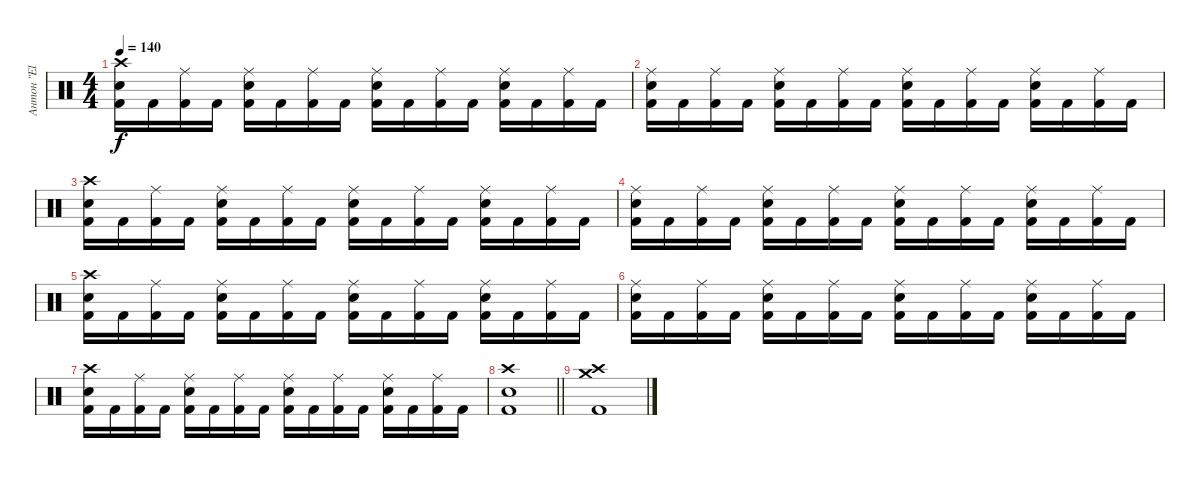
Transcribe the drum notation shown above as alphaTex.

\track ("Антон \"El Bastardo\" Смольянин" "Антон \"El ") {instrument percussion}
\staff {score}
\articulation defaults
\ts (4 4)
\tempo 140
\clef neutral
\ks c
("Crash high (hit)" "Electric Snare (hit)" "Kick (hit) 2").16{dy f} "Kick (hit) 2".16 ("Ride (middle)" "Kick (hit) 2").16 "Kick (hit) 2".16 ("Ride (middle)" "Electric Snare (hit)" "Kick (hit) 2").16 "Kick (hit) 2".16 ("Ride (middle)" "Kick (hit) 2").16 "Kick (hit) 2".16 ("Ride (middle)" "Electric Snare (hit)" "Kick (hit) 2").16 "Kick (hit) 2".16 ("Ride (middle)" "Kick (hit) 2").16 "Kick (hit) 2".16 ("Ride (middle)" "Electric Snare (hit)" "Kick (hit) 2").16 "Kick (hit) 2".16 ("Ride (middle)" "Kick (hit) 2").16 "Kick (hit) 2".16 |
("Ride (middle)" "Electric Snare (hit)" "Kick (hit) 2").16 "Kick (hit) 2".16 ("Ride (middle)" "Kick (hit) 2").16 "Kick (hit) 2".16 ("Ride (middle)" "Electric Snare (hit)" "Kick (hit) 2").16 "Kick (hit) 2".16 ("Ride (middle)" "Kick (hit) 2").16 "Kick (hit) 2".16 ("Ride (middle)" "Electric Snare (hit)" "Kick (hit) 2").16 "Kick (hit) 2".16 ("Ride (middle)" "Kick (hit) 2").16 "Kick (hit) 2".16 ("Ride (middle)" "Electric Snare (hit)" "Kick (hit) 2").16 "Kick (hit) 2".16 ("Ride (middle)" "Kick (hit) 2").16 "Kick (hit) 2".16 |
("Crash high (hit)" "Electric Snare (hit)" "Kick (hit) 2").16 "Kick (hit) 2".16 ("Ride (middle)" "Kick (hit) 2").16 "Kick (hit) 2".16 ("Ride (middle)" "Electric Snare (hit)" "Kick (hit) 2").16 "Kick (hit) 2".16 ("Ride (middle)" "Kick (hit) 2").16 "Kick (hit) 2".16 ("Ride (middle)" "Electric Snare (hit)" "Kick (hit) 2").16 "Kick (hit) 2".16 ("Ride (middle)" "Kick (hit) 2").16 "Kick (hit) 2".16 ("Ride (middle)" "Electric Snare (hit)" "Kick (hit) 2").16 "Kick (hit) 2".16 ("Ride (middle)" "Kick (hit) 2").16 "Kick (hit) 2".16 |
("Ride (middle)" "Electric Snare (hit)" "Kick (hit) 2").16 "Kick (hit) 2".16 ("Ride (middle)" "Kick (hit) 2").16 "Kick (hit) 2".16 ("Ride (middle)" "Electric Snare (hit)" "Kick (hit) 2").16 "Kick (hit) 2".16 ("Ride (middle)" "Kick (hit) 2").16 "Kick (hit) 2".16 ("Ride (middle)" "Electric Snare (hit)" "Kick (hit) 2").16 "Kick (hit) 2".16 ("Ride (middle)" "Kick (hit) 2").16 "Kick (hit) 2".16 ("Ride (middle)" "Electric Snare (hit)" "Kick (hit) 2").16 "Kick (hit) 2".16 ("Ride (middle)" "Kick (hit) 2").16 "Kick (hit) 2".16 |
("Crash high (hit)" "Electric Snare (hit)" "Kick (hit) 2").16 "Kick (hit) 2".16 ("Ride (middle)" "Kick (hit) 2").16 "Kick (hit) 2".16 ("Ride (middle)" "Electric Snare (hit)" "Kick (hit) 2").16 "Kick (hit) 2".16 ("Ride (middle)" "Kick (hit) 2").16 "Kick (hit) 2".16 ("Ride (middle)" "Electric Snare (hit)" "Kick (hit) 2").16 "Kick (hit) 2".16 ("Ride (middle)" "Kick (hit) 2").16 "Kick (hit) 2".16 ("Ride (middle)" "Electric Snare (hit)" "Kick (hit) 2").16 "Kick (hit) 2".16 ("Ride (middle)" "Kick (hit) 2").16 "Kick (hit) 2".16 |
("Ride (middle)" "Electric Snare (hit)" "Kick (hit) 2").16 "Kick (hit) 2".16 ("Ride (middle)" "Kick (hit) 2").16 "Kick (hit) 2".16 ("Ride (middle)" "Electric Snare (hit)" "Kick (hit) 2").16 "Kick (hit) 2".16 ("Ride (middle)" "Kick (hit) 2").16 "Kick (hit) 2".16 ("Ride (middle)" "Electric Snare (hit)" "Kick (hit) 2").16 "Kick (hit) 2".16 ("Ride (middle)" "Kick (hit) 2").16 "Kick (hit) 2".16 ("Ride (middle)" "Electric Snare (hit)" "Kick (hit) 2").16 "Kick (hit) 2".16 ("Ride (middle)" "Kick (hit) 2").16 "Kick (hit) 2".16 |
("Crash high (hit)" "Electric Snare (hit)" "Kick (hit) 2").16 "Kick (hit) 2".16 ("Ride (middle)" "Kick (hit) 2").16 "Kick (hit) 2".16 ("Ride (middle)" "Electric Snare (hit)" "Kick (hit) 2").16 "Kick (hit) 2".16 ("Ride (middle)" "Kick (hit) 2").16 "Kick (hit) 2".16 ("Ride (middle)" "Electric Snare (hit)" "Kick (hit) 2").16 "Kick (hit) 2".16 ("Ride (middle)" "Kick (hit) 2").16 "Kick (hit) 2".16 ("Ride (middle)" "Electric Snare (hit)" "Kick (hit) 2").16 "Kick (hit) 2".16 ("Ride (middle)" "Kick (hit) 2").16 "Kick (hit) 2".16 |
\barLineRight lightlight
("Crash high (hit)" "Electric Snare (hit)" "Kick (hit) 2").1 |
("Crash high (hit)" "Crash medium (hit)" "Kick (hit) 2").1
